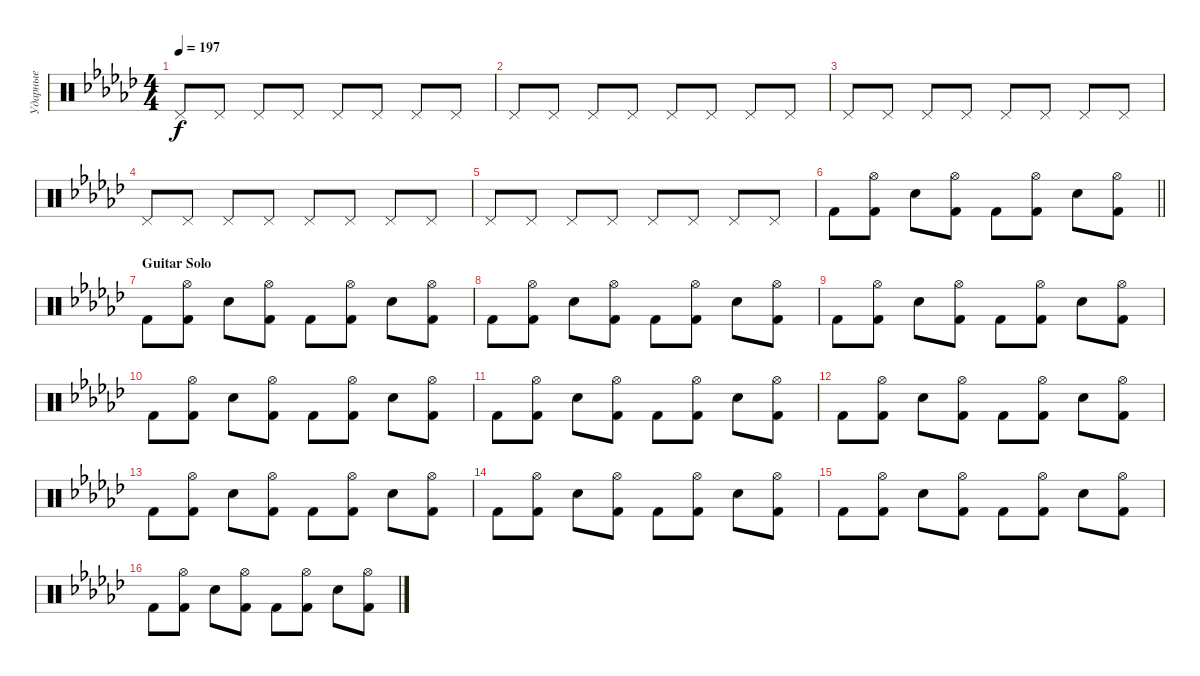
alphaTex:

\track ("Ударные" "Ударные") {instrument percussion}
\staff {score}
\articulation defaults
\ts (4 4)
\tempo 197
\clef neutral
\ks gb "Pedal Hi-Hat (hit)".8{dy f} "Pedal Hi-Hat (hit)".8 "Pedal Hi-Hat (hit)".8 "Pedal Hi-Hat (hit)".8 "Pedal Hi-Hat (hit)".8 "Pedal Hi-Hat (hit)".8 "Pedal Hi-Hat (hit)".8 "Pedal Hi-Hat (hit)".8
|
"Pedal Hi-Hat (hit)".8 "Pedal Hi-Hat (hit)".8 "Pedal Hi-Hat (hit)".8 "Pedal Hi-Hat (hit)".8 "Pedal Hi-Hat (hit)".8 "Pedal Hi-Hat (hit)".8 "Pedal Hi-Hat (hit)".8 "Pedal Hi-Hat (hit)".8 |
"Pedal Hi-Hat (hit)".8 "Pedal Hi-Hat (hit)".8 "Pedal Hi-Hat (hit)".8 "Pedal Hi-Hat (hit)".8 "Pedal Hi-Hat (hit)".8 "Pedal Hi-Hat (hit)".8 "Pedal Hi-Hat (hit)".8 "Pedal Hi-Hat (hit)".8 |
"Pedal Hi-Hat (hit)".8 "Pedal Hi-Hat (hit)".8 "Pedal Hi-Hat (hit)".8 "Pedal Hi-Hat (hit)".8 "Pedal Hi-Hat (hit)".8 "Pedal Hi-Hat (hit)".8 "Pedal Hi-Hat (hit)".8 "Pedal Hi-Hat (hit)".8 |
"Pedal Hi-Hat (hit)".8 "Pedal Hi-Hat (hit)".8 "Pedal Hi-Hat (hit)".8 "Pedal Hi-Hat (hit)".8 "Pedal Hi-Hat (hit)".8 "Pedal Hi-Hat (hit)".8 "Pedal Hi-Hat (hit)".8 "Pedal Hi-Hat (hit)".8 |
\barLineRight lightlight "Kick (hit) 2".8
("Hi-Hat (open)" "Kick (hit) 2").8 "Snare (hit) 2".8 ("Hi-Hat (open)" "Kick (hit) 2").8 "Kick (hit) 2".8 ("Hi-Hat (open)" "Kick (hit) 2").8 "Snare (hit) 2".8 ("Hi-Hat (open)" "Kick (hit) 2").8 |
\section ("" "Guitar Solo")
"Kick (hit) 2".8 ("Hi-Hat (open)" "Kick (hit) 2").8 "Snare (hit) 2".8 ("Hi-Hat (open)" "Kick (hit) 2").8 "Kick (hit) 2".8 ("Hi-Hat (open)" "Kick (hit) 2").8 "Snare (hit) 2".8 ("Hi-Hat (open)" "Kick (hit) 2").8 |
"Kick (hit) 2".8 ("Hi-Hat (open)" "Kick (hit) 2").8 "Snare (hit) 2".8 ("Hi-Hat (open)" "Kick (hit) 2").8 "Kick (hit) 2".8 ("Hi-Hat (open)" "Kick (hit) 2").8 "Snare (hit) 2".8 ("Hi-Hat (open)" "Kick (hit) 2").8 |
"Kick (hit) 2".8 ("Hi-Hat (open)" "Kick (hit) 2").8 "Snare (hit) 2".8 ("Hi-Hat (open)" "Kick (hit) 2").8 "Kick (hit) 2".8 ("Hi-Hat (open)" "Kick (hit) 2").8 "Snare (hit) 2".8 ("Hi-Hat (open)" "Kick (hit) 2").8 |
"Kick (hit) 2".8 ("Hi-Hat (open)" "Kick (hit) 2").8 "Snare (hit) 2".8 ("Hi-Hat (open)" "Kick (hit) 2").8 "Kick (hit) 2".8 ("Hi-Hat (open)" "Kick (hit) 2").8 "Snare (hit) 2".8 ("Hi-Hat (open)" "Kick (hit) 2").8 |
"Kick (hit) 2".8 ("Hi-Hat (open)" "Kick (hit) 2").8 "Snare (hit) 2".8 ("Hi-Hat (open)" "Kick (hit) 2").8 "Kick (hit) 2".8 ("Hi-Hat (open)" "Kick (hit) 2").8 "Snare (hit) 2".8 ("Hi-Hat (open)" "Kick (hit) 2").8 |
"Kick (hit) 2".8 ("Hi-Hat (open)" "Kick (hit) 2").8 "Snare (hit) 2".8 ("Hi-Hat (open)" "Kick (hit) 2").8 "Kick (hit) 2".8 ("Hi-Hat (open)" "Kick (hit) 2").8 "Snare (hit) 2".8 ("Hi-Hat (open)" "Kick (hit) 2").8 |
"Kick (hit) 2".8 ("Hi-Hat (open)" "Kick (hit) 2").8 "Snare (hit) 2".8 ("Hi-Hat (open)" "Kick (hit) 2").8 "Kick (hit) 2".8 ("Hi-Hat (open)" "Kick (hit) 2").8 "Snare (hit) 2".8 ("Hi-Hat (open)" "Kick (hit) 2").8 |
"Kick (hit) 2".8 ("Hi-Hat (open)" "Kick (hit) 2").8 "Snare (hit) 2".8 ("Hi-Hat (open)" "Kick (hit) 2").8 "Kick (hit) 2".8 ("Hi-Hat (open)" "Kick (hit) 2").8 "Snare (hit) 2".8 ("Hi-Hat (open)" "Kick (hit) 2").8 |
"Kick (hit) 2".8 ("Hi-Hat (open)" "Kick (hit) 2").8 "Snare (hit) 2".8 ("Hi-Hat (open)" "Kick (hit) 2").8 "Kick (hit) 2".8 ("Hi-Hat (open)" "Kick (hit) 2").8 "Snare (hit) 2".8 ("Hi-Hat (open)" "Kick (hit) 2").8 |
"Kick (hit) 2".8 ("Hi-Hat (open)" "Kick (hit) 2").8 "Snare (hit) 2".8 ("Hi-Hat (open)" "Kick (hit) 2").8 "Kick (hit) 2".8 ("Hi-Hat (open)" "Kick (hit) 2").8 "Snare (hit) 2".8 ("Hi-Hat (open)" "Kick (hit) 2").8
